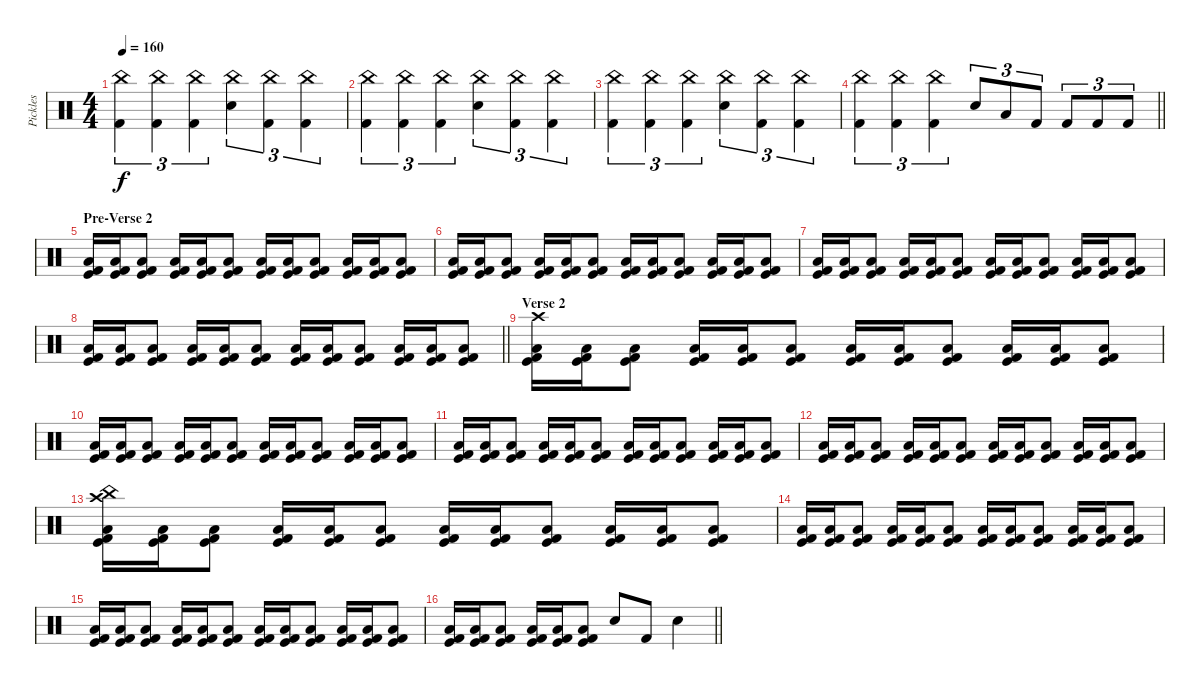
\track ("Pickles" "Pickles") {instrument percussion}
\staff {score}
\articulation defaults
\ts (4 4)
\tempo 160
\clef neutral
\ks c
("China (hit)" "Kick (hit) 2").4{tu (3 2) dy f} ("China (hit)" "Kick (hit) 2").4{tu (3 2)} ("China (hit)" "Kick (hit) 2").4{tu (3 2)} ("China (hit)" "Electric Snare (hit)").4{tu (3 2)} ("China (hit)" "Kick (hit) 2").4{tu (3 2)} ("China (hit)" "Kick (hit) 2").4{tu (3 2)} |
("China (hit)" "Kick (hit) 2").4{tu (3 2)} ("China (hit)" "Kick (hit) 2").4{tu (3 2)} ("China (hit)" "Kick (hit) 2").4{tu (3 2)} ("China (hit)" "Electric Snare (hit)").4{tu (3 2)} ("China (hit)" "Kick (hit) 2").4{tu (3 2)} ("China (hit)" "Kick (hit) 2").4{tu (3 2)} |
("China (hit)" "Kick (hit) 2").4{tu (3 2)} ("China (hit)" "Kick (hit) 2").4{tu (3 2)} ("China (hit)" "Kick (hit) 2").4{tu (3 2)} ("China (hit)" "Electric Snare (hit)").4{tu (3 2)} ("China (hit)" "Kick (hit) 2").4{tu (3 2)} ("China (hit)" "Kick (hit) 2").4{tu (3 2)} |
\barLineRight lightlight
("China (hit)" "Kick (hit) 2").4{tu (3 2)} ("China (hit)" "Kick (hit) 2").4{tu (3 2)} ("China (hit)" "Kick (hit) 2").4{tu (3 2)} "Electric Snare (hit)".8{tu (3 2)} "Low Tom (hit)".8{tu (3 2)} "Kick (hit) 2".8{tu (3 2)} "Kick (hit) 2".8{tu (3 2)} "Kick (hit) 2".8{tu (3 2)} "Kick (hit) 2".8{tu (3 2)} |
\section ("" "Pre-Verse 2")
("Kick (hit) 2" "Kick (hit)" "Low Tom (hit)").16 ("Kick (hit) 2" "Kick (hit)" "Low Tom (hit)").16 ("Kick (hit) 2" "Kick (hit)" "Low Tom (hit)").8 ("Kick (hit) 2" "Kick (hit)" "Low Tom (hit)").16 ("Kick (hit) 2" "Kick (hit)" "Low Tom (hit)").16 ("Kick (hit) 2" "Kick (hit)" "Low Tom (hit)").8 ("Kick (hit) 2" "Kick (hit)" "Low Tom (hit)").16 ("Kick (hit) 2" "Kick (hit)" "Low Tom (hit)").16 ("Kick (hit) 2" "Kick (hit)" "Low Tom (hit)").8 ("Kick (hit) 2" "Kick (hit)" "Low Tom (hit)").16 ("Kick (hit) 2" "Kick (hit)" "Low Tom (hit)").16 ("Kick (hit) 2" "Kick (hit)" "Low Tom (hit)").8 |
("Kick (hit) 2" "Kick (hit)" "Low Tom (hit)").16 ("Kick (hit) 2" "Kick (hit)" "Low Tom (hit)").16 ("Kick (hit) 2" "Kick (hit)" "Low Tom (hit)").8 ("Kick (hit) 2" "Kick (hit)" "Low Tom (hit)").16 ("Kick (hit) 2" "Kick (hit)" "Low Tom (hit)").16 ("Kick (hit) 2" "Kick (hit)" "Low Tom (hit)").8 ("Kick (hit) 2" "Kick (hit)" "Low Tom (hit)").16 ("Kick (hit) 2" "Kick (hit)" "Low Tom (hit)").16 ("Kick (hit) 2" "Kick (hit)" "Low Tom (hit)").8 ("Kick (hit) 2" "Kick (hit)" "Low Tom (hit)").16 ("Kick (hit) 2" "Kick (hit)" "Low Tom (hit)").16 ("Kick (hit) 2" "Kick (hit)" "Low Tom (hit)").8 |
("Kick (hit) 2" "Kick (hit)" "Low Tom (hit)").16 ("Kick (hit) 2" "Kick (hit)" "Low Tom (hit)").16 ("Kick (hit) 2" "Kick (hit)" "Low Tom (hit)").8 ("Kick (hit) 2" "Kick (hit)" "Low Tom (hit)").16 ("Kick (hit) 2" "Kick (hit)" "Low Tom (hit)").16 ("Kick (hit) 2" "Kick (hit)" "Low Tom (hit)").8 ("Kick (hit) 2" "Kick (hit)" "Low Tom (hit)").16 ("Kick (hit) 2" "Kick (hit)" "Low Tom (hit)").16 ("Kick (hit) 2" "Kick (hit)" "Low Tom (hit)").8 ("Kick (hit) 2" "Kick (hit)" "Low Tom (hit)").16 ("Kick (hit) 2" "Kick (hit)" "Low Tom (hit)").16 ("Kick (hit) 2" "Kick (hit)" "Low Tom (hit)").8 |
\barLineRight lightlight
("Kick (hit) 2" "Kick (hit)" "Low Tom (hit)").16 ("Kick (hit) 2" "Kick (hit)" "Low Tom (hit)").16 ("Kick (hit) 2" "Kick (hit)" "Low Tom (hit)").8 ("Kick (hit) 2" "Kick (hit)" "Low Tom (hit)").16 ("Kick (hit) 2" "Kick (hit)" "Low Tom (hit)").16 ("Kick (hit) 2" "Kick (hit)" "Low Tom (hit)").8 ("Kick (hit) 2" "Kick (hit)" "Low Tom (hit)").16 ("Kick (hit) 2" "Kick (hit)" "Low Tom (hit)").16 ("Kick (hit) 2" "Kick (hit)" "Low Tom (hit)").8 ("Kick (hit) 2" "Kick (hit)" "Low Tom (hit)").16 ("Kick (hit) 2" "Kick (hit)" "Low Tom (hit)").16 ("Kick (hit) 2" "Kick (hit)" "Low Tom (hit)").8 |
\section ("" "Verse 2")
("Kick (hit) 2" "Kick (hit)" "Low Tom (hit)" "Crash high (hit)").16 ("Kick (hit) 2" "Kick (hit)" "Low Tom (hit)").16 ("Kick (hit) 2" "Kick (hit)" "Low Tom (hit)").8 ("Kick (hit) 2" "Kick (hit)" "Low Tom (hit)").16 ("Kick (hit) 2" "Kick (hit)" "Low Tom (hit)").16 ("Kick (hit) 2" "Kick (hit)" "Low Tom (hit)").8 ("Kick (hit) 2" "Kick (hit)" "Low Tom (hit)").16 ("Kick (hit) 2" "Kick (hit)" "Low Tom (hit)").16 ("Kick (hit) 2" "Kick (hit)" "Low Tom (hit)").8 ("Kick (hit) 2" "Kick (hit)" "Low Tom (hit)").16 ("Kick (hit) 2" "Kick (hit)" "Low Tom (hit)").16 ("Kick (hit) 2" "Kick (hit)" "Low Tom (hit)").8 |
("Kick (hit) 2" "Kick (hit)" "Low Tom (hit)").16 ("Kick (hit) 2" "Kick (hit)" "Low Tom (hit)").16 ("Kick (hit) 2" "Kick (hit)" "Low Tom (hit)").8 ("Kick (hit) 2" "Kick (hit)" "Low Tom (hit)").16 ("Kick (hit) 2" "Kick (hit)" "Low Tom (hit)").16 ("Kick (hit) 2" "Kick (hit)" "Low Tom (hit)").8 ("Kick (hit) 2" "Kick (hit)" "Low Tom (hit)").16 ("Kick (hit) 2" "Kick (hit)" "Low Tom (hit)").16 ("Kick (hit) 2" "Kick (hit)" "Low Tom (hit)").8 ("Kick (hit) 2" "Kick (hit)" "Low Tom (hit)").16 ("Kick (hit) 2" "Kick (hit)" "Low Tom (hit)").16 ("Kick (hit) 2" "Kick (hit)" "Low Tom (hit)").8 |
("Kick (hit) 2" "Kick (hit)" "Low Tom (hit)").16 ("Kick (hit) 2" "Kick (hit)" "Low Tom (hit)").16 ("Kick (hit) 2" "Kick (hit)" "Low Tom (hit)").8 ("Kick (hit) 2" "Kick (hit)" "Low Tom (hit)").16 ("Kick (hit) 2" "Kick (hit)" "Low Tom (hit)").16 ("Kick (hit) 2" "Kick (hit)" "Low Tom (hit)").8 ("Kick (hit) 2" "Kick (hit)" "Low Tom (hit)").16 ("Kick (hit) 2" "Kick (hit)" "Low Tom (hit)").16 ("Kick (hit) 2" "Kick (hit)" "Low Tom (hit)").8 ("Kick (hit) 2" "Kick (hit)" "Low Tom (hit)").16 ("Kick (hit) 2" "Kick (hit)" "Low Tom (hit)").16 ("Kick (hit) 2" "Kick (hit)" "Low Tom (hit)").8 |
("Kick (hit) 2" "Kick (hit)" "Low Tom (hit)").16 ("Kick (hit) 2" "Kick (hit)" "Low Tom (hit)").16 ("Kick (hit) 2" "Kick (hit)" "Low Tom (hit)").8 ("Kick (hit) 2" "Kick (hit)" "Low Tom (hit)").16 ("Kick (hit) 2" "Kick (hit)" "Low Tom (hit)").16 ("Kick (hit) 2" "Kick (hit)" "Low Tom (hit)").8 ("Kick (hit) 2" "Kick (hit)" "Low Tom (hit)").16 ("Kick (hit) 2" "Kick (hit)" "Low Tom (hit)").16 ("Kick (hit) 2" "Kick (hit)" "Low Tom (hit)").8 ("Kick (hit) 2" "Kick (hit)" "Low Tom (hit)").16 ("Kick (hit) 2" "Kick (hit)" "Low Tom (hit)").16 ("Kick (hit) 2" "Kick (hit)" "Low Tom (hit)").8 |
("Kick (hit) 2" "Kick (hit)" "Low Tom (hit)" "China (hit)" "Crash high (hit)").16 ("Kick (hit) 2" "Kick (hit)" "Low Tom (hit)").16 ("Kick (hit) 2" "Kick (hit)" "Low Tom (hit)").8 ("Kick (hit) 2" "Kick (hit)" "Low Tom (hit)").16 ("Kick (hit) 2" "Kick (hit)" "Low Tom (hit)").16 ("Kick (hit) 2" "Kick (hit)" "Low Tom (hit)").8 ("Kick (hit) 2" "Kick (hit)" "Low Tom (hit)").16 ("Kick (hit) 2" "Kick (hit)" "Low Tom (hit)").16 ("Kick (hit) 2" "Kick (hit)" "Low Tom (hit)").8 ("Kick (hit) 2" "Kick (hit)" "Low Tom (hit)").16 ("Kick (hit) 2" "Kick (hit)" "Low Tom (hit)").16 ("Kick (hit) 2" "Kick (hit)" "Low Tom (hit)").8 |
("Kick (hit) 2" "Kick (hit)" "Low Tom (hit)").16 ("Kick (hit) 2" "Kick (hit)" "Low Tom (hit)").16 ("Kick (hit) 2" "Kick (hit)" "Low Tom (hit)").8 ("Kick (hit) 2" "Kick (hit)" "Low Tom (hit)").16 ("Kick (hit) 2" "Kick (hit)" "Low Tom (hit)").16 ("Kick (hit) 2" "Kick (hit)" "Low Tom (hit)").8 ("Kick (hit) 2" "Kick (hit)" "Low Tom (hit)").16 ("Kick (hit) 2" "Kick (hit)" "Low Tom (hit)").16 ("Kick (hit) 2" "Kick (hit)" "Low Tom (hit)").8 ("Kick (hit) 2" "Kick (hit)" "Low Tom (hit)").16 ("Kick (hit) 2" "Kick (hit)" "Low Tom (hit)").16 ("Kick (hit) 2" "Kick (hit)" "Low Tom (hit)").8 |
("Kick (hit) 2" "Kick (hit)" "Low Tom (hit)").16 ("Kick (hit) 2" "Kick (hit)" "Low Tom (hit)").16 ("Kick (hit) 2" "Kick (hit)" "Low Tom (hit)").8 ("Kick (hit) 2" "Kick (hit)" "Low Tom (hit)").16 ("Kick (hit) 2" "Kick (hit)" "Low Tom (hit)").16 ("Kick (hit) 2" "Kick (hit)" "Low Tom (hit)").8 ("Kick (hit) 2" "Kick (hit)" "Low Tom (hit)").16 ("Kick (hit) 2" "Kick (hit)" "Low Tom (hit)").16 ("Kick (hit) 2" "Kick (hit)" "Low Tom (hit)").8 ("Kick (hit) 2" "Kick (hit)" "Low Tom (hit)").16 ("Kick (hit) 2" "Kick (hit)" "Low Tom (hit)").16 ("Kick (hit) 2" "Kick (hit)" "Low Tom (hit)").8 |
\barLineRight lightlight
("Kick (hit) 2" "Kick (hit)" "Low Tom (hit)").16 ("Kick (hit) 2" "Kick (hit)" "Low Tom (hit)").16 ("Kick (hit) 2" "Kick (hit)" "Low Tom (hit)").8 ("Kick (hit) 2" "Kick (hit)" "Low Tom (hit)").16 ("Kick (hit) 2" "Kick (hit)" "Low Tom (hit)").16 ("Kick (hit) 2" "Kick (hit)" "Low Tom (hit)").8 "Electric Snare (hit)".8 "Kick (hit) 2".8 "Electric Snare (hit)".4
